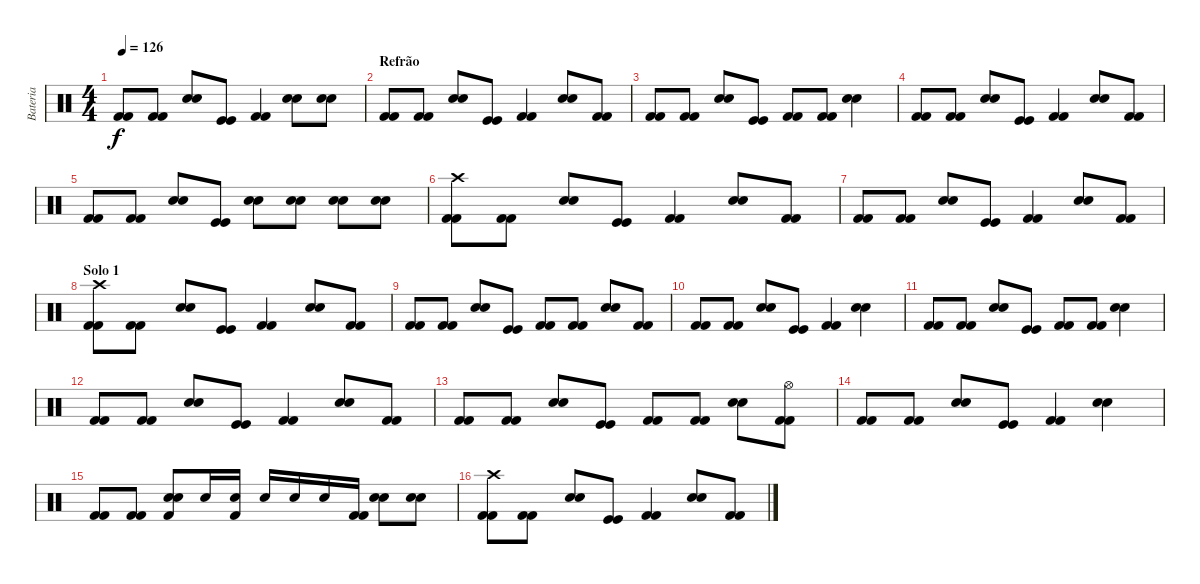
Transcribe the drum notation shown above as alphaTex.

\track ("Bateria" "Bateria") {instrument percussion}
\staff {score}
\articulation defaults
\ts (4 4)
\tempo 126
\clef neutral
\ks c
("Kick (hit) 2" "Kick (hit) 2").8{dy f} ("Kick (hit) 2" "Kick (hit) 2").8 ("Electric Snare (hit)" "Snare (hit) 2").8 ("Kick (hit)" "Kick (hit)").8 ("Kick (hit) 2" "Kick (hit) 2").4 ("Electric Snare (hit)" "Snare (hit) 2").8 ("Electric Snare (hit)" "Snare (hit) 2").8 |
\section ("" "Refrão")
("Kick (hit) 2" "Kick (hit) 2").8 ("Kick (hit) 2" "Kick (hit) 2").8 ("Electric Snare (hit)" "Snare (hit) 2").8 ("Kick (hit)" "Kick (hit)").8 ("Kick (hit) 2" "Kick (hit) 2").4 ("Electric Snare (hit)" "Snare (hit) 2").8 ("Kick (hit) 2" "Kick (hit) 2").8 |
("Kick (hit) 2" "Kick (hit) 2").8 ("Kick (hit) 2" "Kick (hit) 2").8 ("Electric Snare (hit)" "Snare (hit) 2").8 ("Kick (hit)" "Kick (hit)").8 ("Kick (hit) 2" "Kick (hit) 2").8 ("Kick (hit) 2" "Kick (hit) 2").8 ("Electric Snare (hit)" "Snare (hit) 2").4 |
("Kick (hit) 2" "Kick (hit) 2").8 ("Kick (hit) 2" "Kick (hit) 2").8 ("Electric Snare (hit)" "Snare (hit) 2").8 ("Kick (hit)" "Kick (hit)").8 ("Kick (hit) 2" "Kick (hit) 2").4 ("Electric Snare (hit)" "Snare (hit) 2").8 ("Kick (hit) 2" "Kick (hit) 2").8 |
("Kick (hit) 2" "Kick (hit) 2").8 ("Kick (hit) 2" "Kick (hit) 2").8 ("Electric Snare (hit)" "Snare (hit) 2").8 ("Kick (hit)" "Kick (hit)").8 ("Electric Snare (hit)" "Snare (hit) 2").8 ("Electric Snare (hit)" "Snare (hit) 2").8 ("Electric Snare (hit)" "Snare (hit) 2").8 ("Electric Snare (hit)" "Snare (hit) 2").8 |
("Crash high (hit)" "Kick (hit) 2" "Kick (hit) 2").8 ("Kick (hit) 2" "Kick (hit) 2").8 ("Electric Snare (hit)" "Snare (hit) 2").8 ("Kick (hit)" "Kick (hit)").8 ("Kick (hit) 2" "Kick (hit) 2").4 ("Electric Snare (hit)" "Snare (hit) 2").8 ("Kick (hit) 2" "Kick (hit) 2").8 |
("Kick (hit) 2" "Kick (hit) 2").8 ("Kick (hit) 2" "Kick (hit) 2").8 ("Electric Snare (hit)" "Snare (hit) 2").8 ("Kick (hit)" "Kick (hit)").8 ("Kick (hit) 2" "Kick (hit) 2").4 ("Electric Snare (hit)" "Snare (hit) 2").8 ("Kick (hit) 2" "Kick (hit) 2").8 |
\section ("" "Solo 1")
("Crash high (hit)" "Kick (hit) 2" "Kick (hit) 2").8 ("Kick (hit) 2" "Kick (hit) 2").8 ("Electric Snare (hit)" "Snare (hit) 2").8 ("Kick (hit)" "Kick (hit)").8 ("Kick (hit) 2" "Kick (hit) 2").4 ("Electric Snare (hit)" "Snare (hit) 2").8 ("Kick (hit) 2" "Kick (hit) 2").8 |
("Kick (hit) 2" "Kick (hit) 2").8 ("Kick (hit) 2" "Kick (hit) 2").8 ("Electric Snare (hit)" "Snare (hit) 2").8 ("Kick (hit)" "Kick (hit)").8 ("Kick (hit) 2" "Kick (hit) 2").8 ("Kick (hit) 2" "Kick (hit) 2").8 ("Electric Snare (hit)" "Snare (hit) 2").8 ("Kick (hit) 2" "Kick (hit) 2").8 |
("Kick (hit) 2" "Kick (hit) 2").8 ("Kick (hit) 2" "Kick (hit) 2").8 ("Electric Snare (hit)" "Snare (hit) 2").8 ("Kick (hit)" "Kick (hit)").8 ("Kick (hit) 2" "Kick (hit) 2").4 ("Electric Snare (hit)" "Snare (hit) 2").4 |
("Kick (hit) 2" "Kick (hit) 2").8 ("Kick (hit) 2" "Kick (hit) 2").8 ("Electric Snare (hit)" "Snare (hit) 2").8 ("Kick (hit)" "Kick (hit)").8 ("Kick (hit) 2" "Kick (hit) 2").8 ("Kick (hit) 2" "Kick (hit) 2").8 ("Electric Snare (hit)" "Snare (hit) 2").4 |
("Kick (hit) 2" "Kick (hit) 2").8 ("Kick (hit) 2" "Kick (hit) 2").8 ("Electric Snare (hit)" "Snare (hit) 2").8 ("Kick (hit)" "Kick (hit)").8 ("Kick (hit) 2" "Kick (hit) 2").4 ("Electric Snare (hit)" "Snare (hit) 2").8 ("Kick (hit) 2" "Kick (hit) 2").8 |
("Kick (hit) 2" "Kick (hit) 2").8 ("Kick (hit) 2" "Kick (hit) 2").8 ("Electric Snare (hit)" "Snare (hit) 2").8 ("Kick (hit)" "Kick (hit)").8 ("Kick (hit) 2" "Kick (hit) 2").8 ("Kick (hit) 2" "Kick (hit) 2").8 ("Electric Snare (hit)" "Snare (hit) 2").8 ("Hi-Hat (open)" "Kick (hit) 2" "Kick (hit) 2").8 |
("Kick (hit) 2" "Kick (hit) 2").8 ("Kick (hit) 2" "Kick (hit) 2").8 ("Electric Snare (hit)" "Snare (hit) 2").8 ("Kick (hit)" "Kick (hit)").8 ("Kick (hit) 2" "Kick (hit) 2").4 ("Electric Snare (hit)" "Snare (hit) 2").4 |
("Kick (hit) 2" "Kick (hit) 2").8 ("Kick (hit) 2" "Kick (hit) 2").8 ("Electric Snare (hit)" "Snare (hit) 2" "Kick (hit) 2").8 "Electric Snare (hit)".16 ("Electric Snare (hit)" "Kick (hit) 2").16 "Electric Snare (hit)".16 "Electric Snare (hit)".16 "Electric Snare (hit)".16 ("Kick (hit) 2" "Kick (hit) 2").16 ("Electric Snare (hit)" "Snare (hit) 2").8 ("Electric Snare (hit)" "Snare (hit) 2").8 |
("Crash high (hit)" "Kick (hit) 2" "Kick (hit) 2").8 ("Kick (hit) 2" "Kick (hit) 2").8 ("Electric Snare (hit)" "Snare (hit) 2").8 ("Kick (hit)" "Kick (hit)").8 ("Kick (hit) 2" "Kick (hit) 2").4 ("Electric Snare (hit)" "Snare (hit) 2").8 ("Kick (hit) 2" "Kick (hit) 2").8
